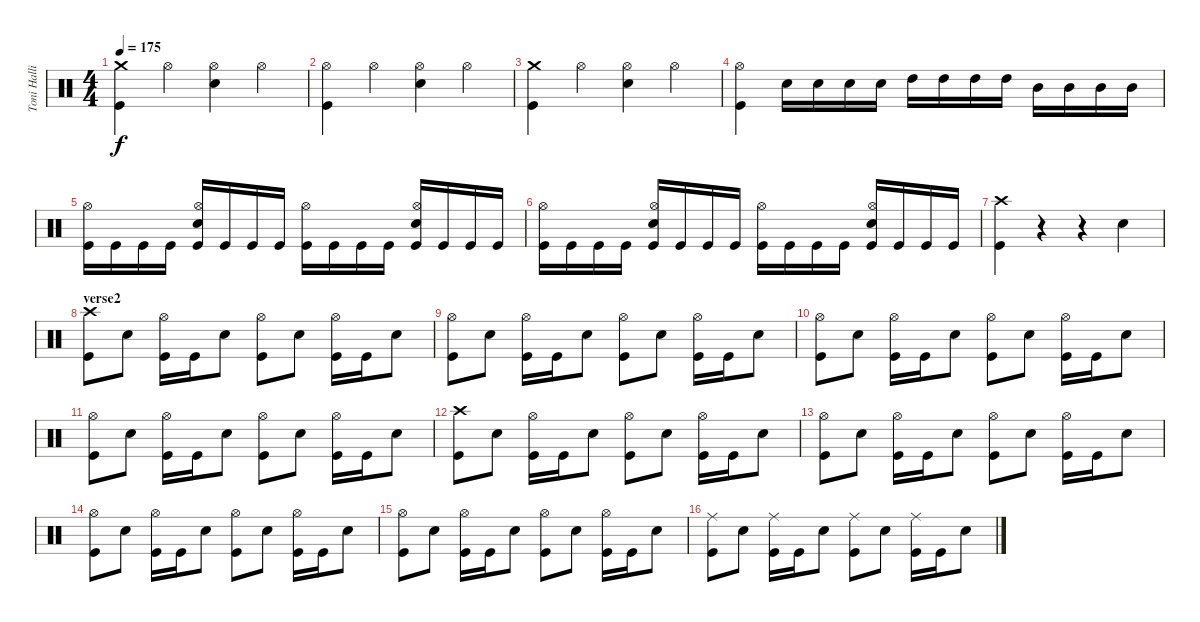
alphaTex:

\track ("Toni Hallio" "Toni Halli") {instrument percussion}
\staff {score}
\articulation defaults
\ts (4 4)
\tempo 175
\clef neutral
\ks c
("Crash medium (hit)" "Kick (hit)").4{dy f} "Hi-Hat (open)".4 ("Hi-Hat (open)" "Snare (hit) 2").4 "Hi-Hat (open)".4 |
("Hi-Hat (open)" "Kick (hit)").4 "Hi-Hat (open)".4 ("Hi-Hat (open)" "Snare (hit) 2").4 "Hi-Hat (open)".4 |
("Crash medium (hit)" "Kick (hit)").4 "Hi-Hat (open)".4 ("Hi-Hat (open)" "Snare (hit) 2").4 "Hi-Hat (open)".4 |
("Hi-Hat (open)" "Kick (hit)").4 "Snare (hit) 2".16 "Snare (hit) 2".16 "Snare (hit) 2".16 "Snare (hit) 2".16 "High Tom (hit)".16 "High Tom (hit)".16 "High Tom (hit)".16 "High Tom (hit)".16 "Mid Tom (hit)".16 "Mid Tom (hit)".16 "Mid Tom (hit)".16 "Mid Tom (hit)".16 |
("Hi-Hat (open)" "Kick (hit)").16 "Kick (hit)".16 "Kick (hit)".16 "Kick (hit)".16 ("Hi-Hat (open)" "Snare (hit) 2" "Kick (hit)").16 "Kick (hit)".16 "Kick (hit)".16 "Kick (hit)".16 ("Hi-Hat (open)" "Kick (hit)").16 "Kick (hit)".16 "Kick (hit)".16 "Kick (hit)".16 ("Hi-Hat (open)" "Snare (hit) 2" "Kick (hit)").16 "Kick (hit)".16 "Kick (hit)".16 "Kick (hit)".16 |
("Hi-Hat (open)" "Kick (hit)").16 "Kick (hit)".16 "Kick (hit)".16 "Kick (hit)".16 ("Hi-Hat (open)" "Snare (hit) 2" "Kick (hit)").16 "Kick (hit)".16 "Kick (hit)".16 "Kick (hit)".16 ("Hi-Hat (open)" "Kick (hit)").16 "Kick (hit)".16 "Kick (hit)".16 "Kick (hit)".16 ("Hi-Hat (open)" "Snare (hit) 2" "Kick (hit)").16 "Kick (hit)".16 "Kick (hit)".16 "Kick (hit)".16 |
("Crash high (hit)" "Kick (hit)").4 r.4 r.4 "Snare (hit) 2".4 |
\section ("" "verse2")
("Crash high (hit)" "Kick (hit)").8 "Snare (hit) 2".8 ("Hi-Hat (open)" "Kick (hit)").16 "Kick (hit)".16 "Snare (hit) 2".8 ("Hi-Hat (open)" "Kick (hit)").8 "Snare (hit) 2".8 ("Hi-Hat (open)" "Kick (hit)").16 "Kick (hit)".16 "Snare (hit) 2".8 |
("Hi-Hat (open)" "Kick (hit)").8 "Snare (hit) 2".8 ("Hi-Hat (open)" "Kick (hit)").16 "Kick (hit)".16 "Snare (hit) 2".8 ("Hi-Hat (open)" "Kick (hit)").8 "Snare (hit) 2".8 ("Hi-Hat (open)" "Kick (hit)").16 "Kick (hit)".16 "Snare (hit) 2".8 |
("Hi-Hat (open)" "Kick (hit)").8 "Snare (hit) 2".8 ("Hi-Hat (open)" "Kick (hit)").16 "Kick (hit)".16 "Snare (hit) 2".8 ("Hi-Hat (open)" "Kick (hit)").8 "Snare (hit) 2".8 ("Hi-Hat (open)" "Kick (hit)").16 "Kick (hit)".16 "Snare (hit) 2".8 |
("Hi-Hat (open)" "Kick (hit)").8 "Snare (hit) 2".8 ("Hi-Hat (open)" "Kick (hit)").16 "Kick (hit)".16 "Snare (hit) 2".8 ("Hi-Hat (open)" "Kick (hit)").8 "Snare (hit) 2".8 ("Hi-Hat (open)" "Kick (hit)").16 "Kick (hit)".16 "Snare (hit) 2".8 |
("Crash high (hit)" "Kick (hit)").8 "Snare (hit) 2".8 ("Hi-Hat (open)" "Kick (hit)").16 "Kick (hit)".16 "Snare (hit) 2".8 ("Hi-Hat (open)" "Kick (hit)").8 "Snare (hit) 2".8 ("Hi-Hat (open)" "Kick (hit)").16 "Kick (hit)".16 "Snare (hit) 2".8 |
("Hi-Hat (open)" "Kick (hit)").8 "Snare (hit) 2".8 ("Hi-Hat (open)" "Kick (hit)").16 "Kick (hit)".16 "Snare (hit) 2".8 ("Hi-Hat (open)" "Kick (hit)").8 "Snare (hit) 2".8 ("Hi-Hat (open)" "Kick (hit)").16 "Kick (hit)".16 "Snare (hit) 2".8 |
("Hi-Hat (open)" "Kick (hit)").8 "Snare (hit) 2".8 ("Hi-Hat (open)" "Kick (hit)").16 "Kick (hit)".16 "Snare (hit) 2".8 ("Hi-Hat (open)" "Kick (hit)").8 "Snare (hit) 2".8 ("Hi-Hat (open)" "Kick (hit)").16 "Kick (hit)".16 "Snare (hit) 2".8 |
("Hi-Hat (open)" "Kick (hit)").8 "Snare (hit) 2".8 ("Hi-Hat (open)" "Kick (hit)").16 "Kick (hit)".16 "Snare (hit) 2".8 ("Hi-Hat (open)" "Kick (hit)").8 "Snare (hit) 2".8 ("Hi-Hat (open)" "Kick (hit)").16 "Kick (hit)".16 "Snare (hit) 2".8 |
("Ride (middle)" "Kick (hit)").8 "Snare (hit) 2".8 ("Ride (middle)" "Kick (hit)").16 "Kick (hit)".16 "Snare (hit) 2".8 ("Ride (middle)" "Kick (hit)").8 "Snare (hit) 2".8 ("Ride (middle)" "Kick (hit)").16 "Kick (hit)".16 "Snare (hit) 2".8
